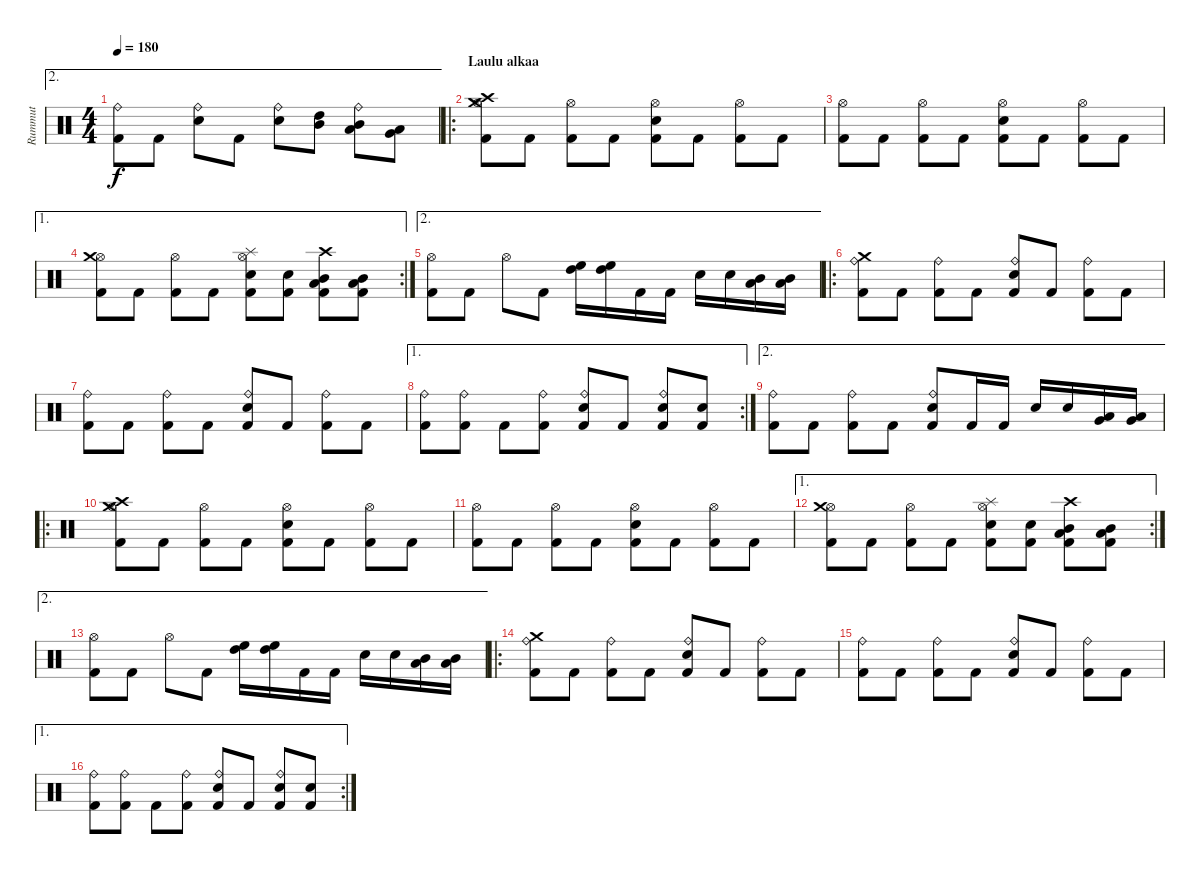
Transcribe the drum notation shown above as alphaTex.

\track ("Rummut" "Rummut") {instrument percussion}
\staff {score}
\articulation defaults
\ae 2
\ts (4 4)
\tempo 180
\clef neutral
\ks c
("Kick (hit) 2" "Ride (bell)").8{dy f} "Kick (hit) 2".8 ("Snare (hit) 2" "Ride (bell)").8 "Kick (hit) 2".8 ("Snare (hit) 2" "Ride (bell)").8 ("Mid Tom (hit)" "High Tom (hit)").8 ("Low Tom (hit)" "Mid Tom (hit)" "Ride (bell)").8 ("Very Low Tom (hit)" "Low Tom (hit)").8 |
\ro
\section ("" "Laulu alkaa")
("Kick (hit) 2" "Hi-Hat (open)" "Crash medium (hit)" "Crash high (hit)").8 "Kick (hit) 2".8 ("Kick (hit) 2" "Hi-Hat (open)").8 "Kick (hit) 2".8 ("Kick (hit) 2" "Snare (hit) 2" "Hi-Hat (open)").8 "Kick (hit) 2".8 ("Kick (hit) 2" "Hi-Hat (open)").8 "Kick (hit) 2".8 |
("Kick (hit) 2" "Hi-Hat (open)").8 "Kick (hit) 2".8 ("Kick (hit) 2" "Hi-Hat (open)").8 "Kick (hit) 2".8 ("Kick (hit) 2" "Snare (hit) 2" "Hi-Hat (open)").8 "Kick (hit) 2".8 ("Kick (hit) 2" "Hi-Hat (open)").8 "Kick (hit) 2".8 |
\ae 1
\rc 2
("Kick (hit) 2" "Hi-Hat (open)" "Crash medium (hit)").8 "Kick (hit) 2".8 ("Kick (hit) 2" "Hi-Hat (open)").8 "Kick (hit) 2".8 ("Kick (hit) 2" "Snare (hit) 2" "Hi-Hat (open)" "Splash (hit)").8 ("Kick (hit) 2" "Snare (hit) 2").8 ("Kick (hit) 2" "Mid Tom (hit)" "Low Tom (hit)" "Crash high (hit)").8 ("Kick (hit) 2" "Mid Tom (hit)" "Low Tom (hit)").8 |
\ae 2
("Kick (hit) 2" "Hi-Hat (open)").8 "Kick (hit) 2".8 "Hi-Hat (open)".8 "Kick (hit) 2".8 ("High Floor Tom (hit)" "High Tom (hit)").16 ("High Floor Tom (hit)" "High Tom (hit)").16 "Kick (hit) 2".16 "Kick (hit) 2".16 "Snare (hit) 2".16 "Snare (hit) 2".16 ("Mid Tom (hit)" "Low Tom (hit)").16 ("Mid Tom (hit)" "Low Tom (hit)").16 |
\ro
("Kick (hit) 2" "Ride (bell)" "Crash medium (hit)").8 "Kick (hit) 2".8 ("Kick (hit) 2" "Ride (bell)").8 "Kick (hit) 2".8 ("Kick (hit) 2" "Snare (hit) 2" "Ride (bell)").8 "Kick (hit) 2".8 ("Kick (hit) 2" "Ride (bell)").8 "Kick (hit) 2".8 |
("Kick (hit) 2" "Ride (bell)").8 "Kick (hit) 2".8 ("Kick (hit) 2" "Ride (bell)").8 "Kick (hit) 2".8 ("Kick (hit) 2" "Snare (hit) 2" "Ride (bell)").8 "Kick (hit) 2".8 ("Kick (hit) 2" "Ride (bell)").8 "Kick (hit) 2".8 |
\ae 1
\rc 2
("Kick (hit) 2" "Ride (bell)").8 ("Kick (hit) 2" "Ride (bell)").8 "Kick (hit) 2".8 ("Kick (hit) 2" "Ride (bell)").8 ("Kick (hit) 2" "Snare (hit) 2" "Ride (bell)").8 "Kick (hit) 2".8 ("Kick (hit) 2" "Snare (hit) 2" "Ride (bell)").8 ("Kick (hit) 2" "Snare (hit) 2").8 |
\ae 2
("Kick (hit) 2" "Ride (bell)").8 "Kick (hit) 2".8 ("Kick (hit) 2" "Ride (bell)").8 "Kick (hit) 2".8 ("Kick (hit) 2" "Snare (hit) 2" "Ride (bell)").8 "Kick (hit) 2".16 "Kick (hit) 2".16 "Snare (hit) 2".16 "Snare (hit) 2".16 ("Low Tom (hit)" "Very Low Tom (hit)").16 ("Low Tom (hit)" "Very Low Tom (hit)").16 |
\ro
("Kick (hit) 2" "Hi-Hat (open)" "Crash medium (hit)" "Crash high (hit)").8 "Kick (hit) 2".8 ("Kick (hit) 2" "Hi-Hat (open)").8 "Kick (hit) 2".8 ("Kick (hit) 2" "Snare (hit) 2" "Hi-Hat (open)").8 "Kick (hit) 2".8 ("Kick (hit) 2" "Hi-Hat (open)").8 "Kick (hit) 2".8 |
("Kick (hit) 2" "Hi-Hat (open)").8 "Kick (hit) 2".8 ("Kick (hit) 2" "Hi-Hat (open)").8 "Kick (hit) 2".8 ("Kick (hit) 2" "Snare (hit) 2" "Hi-Hat (open)").8 "Kick (hit) 2".8 ("Kick (hit) 2" "Hi-Hat (open)").8 "Kick (hit) 2".8 |
\ae 1
\rc 2
("Kick (hit) 2" "Hi-Hat (open)" "Crash medium (hit)").8 "Kick (hit) 2".8 ("Kick (hit) 2" "Hi-Hat (open)").8 "Kick (hit) 2".8 ("Kick (hit) 2" "Snare (hit) 2" "Hi-Hat (open)" "Splash (hit)").8 ("Kick (hit) 2" "Snare (hit) 2").8 ("Kick (hit) 2" "Mid Tom (hit)" "Low Tom (hit)" "Crash high (hit)").8 ("Kick (hit) 2" "Mid Tom (hit)" "Low Tom (hit)").8 |
\ae 2
("Kick (hit) 2" "Hi-Hat (open)").8 "Kick (hit) 2".8 "Hi-Hat (open)".8 "Kick (hit) 2".8 ("High Floor Tom (hit)" "High Tom (hit)").16 ("High Floor Tom (hit)" "High Tom (hit)").16 "Kick (hit) 2".16 "Kick (hit) 2".16 "Snare (hit) 2".16 "Snare (hit) 2".16 ("Mid Tom (hit)" "Low Tom (hit)").16 ("Mid Tom (hit)" "Low Tom (hit)").16 |
\ro
("Kick (hit) 2" "Ride (bell)" "Crash medium (hit)").8 "Kick (hit) 2".8 ("Kick (hit) 2" "Ride (bell)").8 "Kick (hit) 2".8 ("Kick (hit) 2" "Snare (hit) 2" "Ride (bell)").8 "Kick (hit) 2".8 ("Kick (hit) 2" "Ride (bell)").8 "Kick (hit) 2".8 |
("Kick (hit) 2" "Ride (bell)").8 "Kick (hit) 2".8 ("Kick (hit) 2" "Ride (bell)").8 "Kick (hit) 2".8 ("Kick (hit) 2" "Snare (hit) 2" "Ride (bell)").8 "Kick (hit) 2".8 ("Kick (hit) 2" "Ride (bell)").8 "Kick (hit) 2".8 |
\ae 1
\rc 2
("Kick (hit) 2" "Ride (bell)").8 ("Kick (hit) 2" "Ride (bell)").8 "Kick (hit) 2".8 ("Kick (hit) 2" "Ride (bell)").8 ("Kick (hit) 2" "Snare (hit) 2" "Ride (bell)").8 "Kick (hit) 2".8 ("Kick (hit) 2" "Snare (hit) 2" "Ride (bell)").8 ("Kick (hit) 2" "Snare (hit) 2").8
